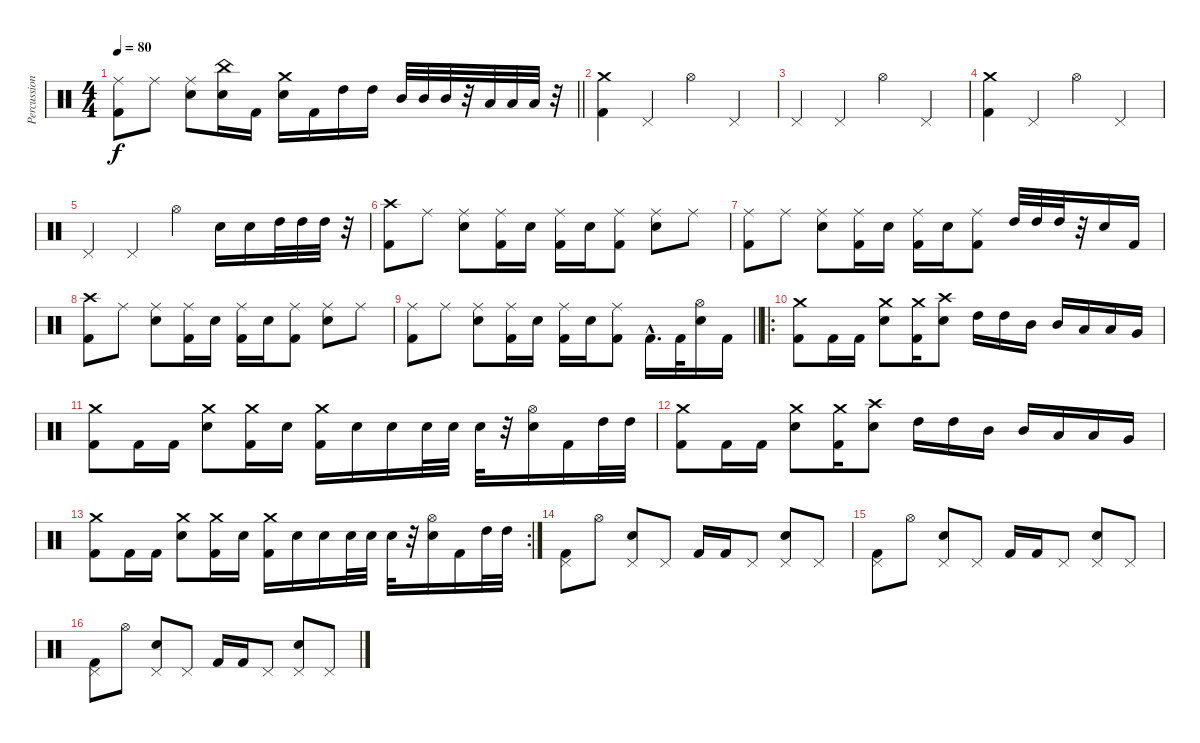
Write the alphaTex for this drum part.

\track ("Percussion" "Percussion") {instrument percussion}
\staff {score}
\articulation defaults
\ts (4 4)
\tempo 80
\clef neutral
\barLineRight lightlight
\ks c
("Ride (middle)" "Kick (hit) 2").8{dy f} "Ride (middle)".8 ("Ride (middle)" "Electric Snare (hit)").8 ("China (hit)" "Electric Snare (hit)").16 "Kick (hit) 2".16 ("Crash medium (hit)" "Electric Snare (hit)").16 "Kick (hit) 2".16 "High Tom (hit)".16 "High Tom (hit)".16 "Mid Tom (hit)".32 "Mid Tom (hit)".32 "Mid Tom (hit)".32 r.32 "Low Tom (hit)".32 "Low Tom (hit)".32 "Low Tom (hit)".32 r.32 |
("Crash medium (hit)" "Kick (hit) 2").4 "Pedal Hi-Hat (hit)".4 "Hi-Hat (open)".4 "Pedal Hi-Hat (hit)".4 |
"Pedal Hi-Hat (hit)".4 "Pedal Hi-Hat (hit)".4 "Hi-Hat (open)".4 "Pedal Hi-Hat (hit)".4 |
("Crash medium (hit)" "Kick (hit) 2").4 "Pedal Hi-Hat (hit)".4 "Hi-Hat (open)".4 "Pedal Hi-Hat (hit)".4 |
"Pedal Hi-Hat (hit)".4 "Pedal Hi-Hat (hit)".4 "Hi-Hat (open)".4 "Electric Snare (hit)".16 "Electric Snare (hit)".16 "High Tom (hit)".32 "High Tom (hit)".32 "High Tom (hit)".32 r.32 |
("Crash high (hit)" "Kick (hit) 2").8 "Ride (middle)".8 ("Ride (middle)" "Electric Snare (hit)").8 ("Ride (middle)" "Kick (hit) 2").16 "Electric Snare (hit)".16 ("Ride (middle)" "Kick (hit) 2").16 "Electric Snare (hit)".16 ("Ride (middle)" "Kick (hit) 2").8 ("Ride (middle)" "Electric Snare (hit)").8 "Ride (middle)".8 |
("Ride (middle)" "Kick (hit) 2").8 "Ride (middle)".8 ("Ride (middle)" "Electric Snare (hit)").8 ("Ride (middle)" "Kick (hit) 2").16 "Electric Snare (hit)".16 ("Ride (middle)" "Kick (hit) 2").16 "Electric Snare (hit)".16 ("Ride (middle)" "Kick (hit) 2").8 "High Tom (hit)".32 "High Tom (hit)".32 "High Tom (hit)".32 r.32 "Electric Snare (hit)".16 "Kick (hit) 2".16 |
("Crash high (hit)" "Kick (hit) 2").8 "Ride (middle)".8 ("Ride (middle)" "Electric Snare (hit)").8 ("Ride (middle)" "Kick (hit) 2").16 "Electric Snare (hit)".16 ("Ride (middle)" "Kick (hit) 2").16 "Electric Snare (hit)".16 ("Ride (middle)" "Kick (hit) 2").8 ("Ride (middle)" "Electric Snare (hit)").8 "Ride (middle)".8 |
\barLineRight lightlight
("Ride (middle)" "Kick (hit) 2").8 "Ride (middle)".8 ("Ride (middle)" "Electric Snare (hit)").8 ("Ride (middle)" "Kick (hit) 2").16 "Electric Snare (hit)".16 ("Ride (middle)" "Kick (hit) 2").16 "Electric Snare (hit)".16 ("Ride (middle)" "Kick (hit) 2").8 "Kick (hit) 2"{hac}.16{d} "Kick (hit) 2".32 ("Hi-Hat (open)" "Electric Snare (hit)").16 "Kick (hit) 2".16 |
\ro
("Crash medium (hit)" "Kick (hit) 2").8{volume 9} "Kick (hit) 2".16 "Kick (hit) 2".16 ("Crash medium (hit)" "Electric Snare (hit)").8 ("Crash medium (hit)" "Kick (hit) 2").16 ("Crash high (hit)" "Electric Snare (hit)").8 "High Tom (hit)".16 "High Tom (hit)".16 "Mid Tom (hit)".16 "Mid Tom (hit)".16 "Low Tom (hit)".16 "Low Tom (hit)".16 "Very Low Tom (hit)".16 |
("Crash medium (hit)" "Kick (hit) 2").8 "Kick (hit) 2".16 "Kick (hit) 2".16 ("Crash medium (hit)" "Electric Snare (hit)").8 ("Crash medium (hit)" "Kick (hit) 2").16 "Electric Snare (hit)".16 ("Crash medium (hit)" "Kick (hit) 2").16 "Electric Snare (hit)".16 "Electric Snare (hit)".16 "Electric Snare (hit)".32 "Electric Snare (hit)".32 "Electric Snare (hit)".32 r.32 ("Hi-Hat (open)" "Electric Snare (hit)").16 "Kick (hit) 2".16 "High Tom (hit)".32 "High Tom (hit)".32 |
("Crash medium (hit)" "Kick (hit) 2").8 "Kick (hit) 2".16 "Kick (hit) 2".16 ("Crash medium (hit)" "Electric Snare (hit)").8 ("Crash medium (hit)" "Kick (hit) 2").16 ("Crash high (hit)" "Electric Snare (hit)").8 "High Tom (hit)".16 "High Tom (hit)".16 "Mid Tom (hit)".16 "Mid Tom (hit)".16 "Low Tom (hit)".16 "Low Tom (hit)".16 "Very Low Tom (hit)".16 |
\rc 2
("Crash medium (hit)" "Kick (hit) 2").8 "Kick (hit) 2".16 "Kick (hit) 2".16 ("Crash medium (hit)" "Electric Snare (hit)").8 ("Crash medium (hit)" "Kick (hit) 2").16 "Electric Snare (hit)".16 ("Crash medium (hit)" "Kick (hit) 2").16 "Electric Snare (hit)".16 "Electric Snare (hit)".16 "Electric Snare (hit)".32 "Electric Snare (hit)".32 "Electric Snare (hit)".32 r.32 ("Hi-Hat (open)" "Electric Snare (hit)").16 "Kick (hit) 2".16 "High Tom (hit)".32 "High Tom (hit)".32 |
("Pedal Hi-Hat (hit)" "Kick (hit) 2").8 "Hi-Hat (open)".8 ("Pedal Hi-Hat (hit)" "Electric Snare (hit)").8 "Pedal Hi-Hat (hit)".8 "Kick (hit) 2".16 "Kick (hit) 2".16 "Pedal Hi-Hat (hit)".8 ("Pedal Hi-Hat (hit)" "Electric Snare (hit)").8 "Pedal Hi-Hat (hit)".8 |
("Pedal Hi-Hat (hit)" "Kick (hit) 2").8 "Hi-Hat (open)".8 ("Pedal Hi-Hat (hit)" "Electric Snare (hit)").8 "Pedal Hi-Hat (hit)".8 "Kick (hit) 2".16 "Kick (hit) 2".16 "Pedal Hi-Hat (hit)".8 ("Pedal Hi-Hat (hit)" "Electric Snare (hit)").8 "Pedal Hi-Hat (hit)".8 |
("Pedal Hi-Hat (hit)" "Kick (hit) 2").8 "Hi-Hat (open)".8 ("Pedal Hi-Hat (hit)" "Electric Snare (hit)").8 "Pedal Hi-Hat (hit)".8 "Kick (hit) 2".16 "Kick (hit) 2".16 "Pedal Hi-Hat (hit)".8 ("Pedal Hi-Hat (hit)" "Electric Snare (hit)").8 "Pedal Hi-Hat (hit)".8
